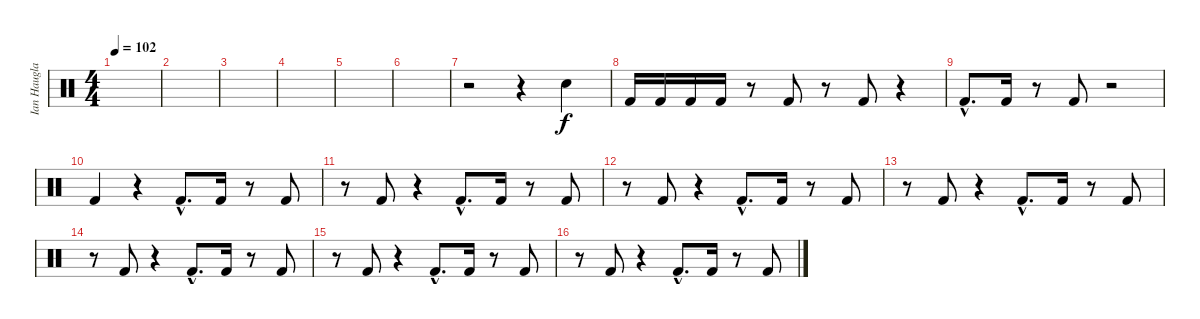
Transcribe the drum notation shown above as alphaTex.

\track ("Ian Haugland Drums" "Ian Haugla") {instrument percussion}
\staff {score}
\articulation defaults
\ts (4 4)
\tempo 102
\clef neutral
\ks c
|
|
|
|
|
|
r.2 r.4 "Snare (hit) 2".4 |
"Kick (hit) 2".16 "Kick (hit) 2".16 "Kick (hit) 2".16 "Kick (hit) 2".16 r.8 "Kick (hit) 2".8 r.8 "Kick (hit) 2".8 r.4 |
"Kick (hit) 2"{hac}.8{d} "Kick (hit) 2".16 r.8 "Kick (hit) 2".8 r.2 |
"Kick (hit) 2".4 r.4 "Kick (hit) 2"{hac}.8{d} "Kick (hit) 2".16 r.8 "Kick (hit) 2".8 |
r.8 "Kick (hit) 2".8 r.4 "Kick (hit) 2"{hac}.8{d} "Kick (hit) 2".16 r.8 "Kick (hit) 2".8 |
r.8 "Kick (hit) 2".8 r.4 "Kick (hit) 2"{hac}.8{d} "Kick (hit) 2".16 r.8 "Kick (hit) 2".8 |
r.8 "Kick (hit) 2".8 r.4 "Kick (hit) 2"{hac}.8{d} "Kick (hit) 2".16 r.8 "Kick (hit) 2".8 |
r.8 "Kick (hit) 2".8 r.4 "Kick (hit) 2"{hac}.8{d} "Kick (hit) 2".16 r.8 "Kick (hit) 2".8 |
r.8 "Kick (hit) 2".8 r.4 "Kick (hit) 2"{hac}.8{d} "Kick (hit) 2".16 r.8 "Kick (hit) 2".8 |
r.8 "Kick (hit) 2".8 r.4 "Kick (hit) 2"{hac}.8{d} "Kick (hit) 2".16 r.8 "Kick (hit) 2".8
